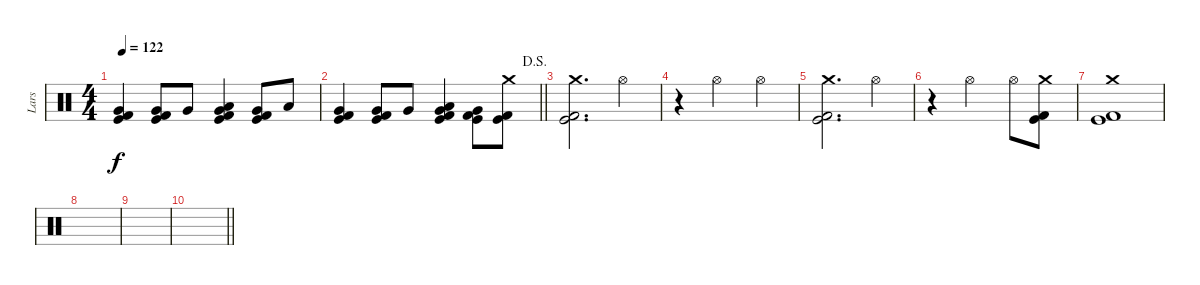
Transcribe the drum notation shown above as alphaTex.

\track ("Lars" "Lars") {instrument percussion}
\staff {score}
\articulation defaults
\ts (4 4)
\tempo 122
\clef neutral
\ks aminor
("Very Low Tom (hit)" "Kick (hit)" "Kick (hit) 2").4{dy f} ("Very Low Tom (hit)" "Kick (hit)" "Kick (hit) 2").8 "Very Low Tom (hit)".8 ("Very Low Tom (hit)" "Kick (hit)" "Kick (hit) 2" "Low Tom (hit)").4 ("Very Low Tom (hit)" "Kick (hit)" "Kick (hit) 2").8 "Low Tom (hit)".8 |
\jump dalsegno
\barLineRight lightlight
("Very Low Tom (hit)" "Kick (hit)" "Kick (hit) 2").4 ("Very Low Tom (hit)" "Kick (hit)" "Kick (hit) 2").8 "Very Low Tom (hit)".8 ("Very Low Tom (hit)" "Kick (hit)" "Kick (hit) 2" "Low Tom (hit)").4 ("Very Low Tom (hit)" "Kick (hit)" "Kick (hit) 2").8 ("Crash medium (hit)" "Kick (hit)" "Kick (hit) 2").8 |
("Crash medium (hit)" "Kick (hit)" "Kick (hit) 2").2{d} "Hi-Hat (open)".4 |
r.4 "Hi-Hat (open)".2 "Hi-Hat (open)".4 |
("Crash medium (hit)" "Kick (hit)" "Kick (hit) 2").2{d} "Hi-Hat (open)".4 |
r.4 "Hi-Hat (open)".2 "Hi-Hat (open)".8 ("Crash medium (hit)" "Kick (hit)" "Kick (hit) 2").8 |
("Crash medium (hit)" "Kick (hit)" "Kick (hit) 2").1 |
|
|
\barLineRight lightlight
